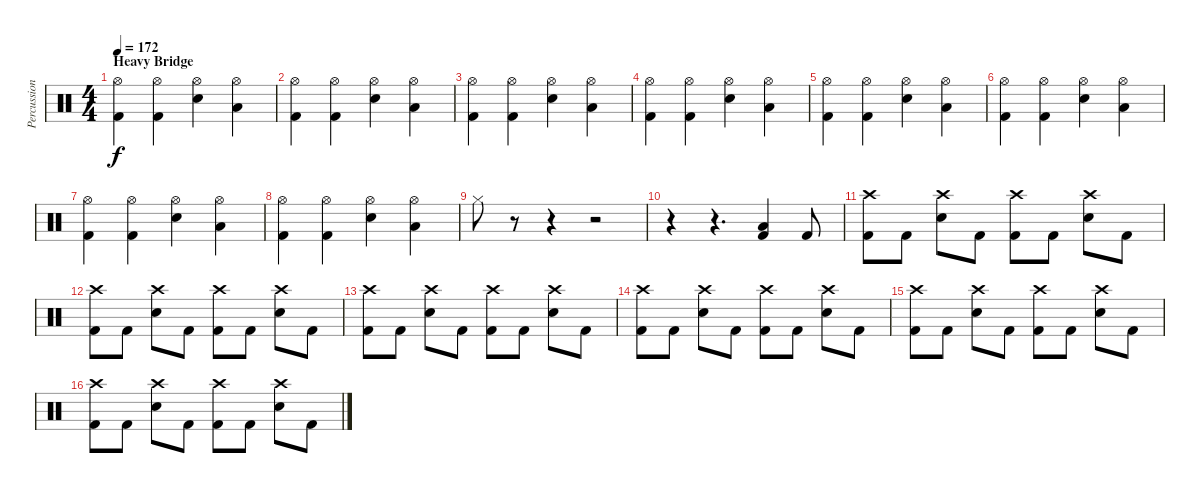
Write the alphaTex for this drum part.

\track ("Percussion" "Percussion") {instrument percussion}
\staff {score}
\articulation defaults
\ts (4 4)
\section ("" "Heavy Bridge")
\tempo 172
\clef neutral
\ks c
("Hi-Hat (open)" "Kick (hit) 2").4{dy f} ("Hi-Hat (open)" "Kick (hit) 2").4 ("Hi-Hat (open)" "Electric Snare (hit)").4 ("Hi-Hat (open)" "Low Tom (hit)").4 |
("Hi-Hat (open)" "Kick (hit) 2").4 ("Hi-Hat (open)" "Kick (hit) 2").4 ("Hi-Hat (open)" "Electric Snare (hit)").4 ("Hi-Hat (open)" "Low Tom (hit)").4 |
("Hi-Hat (open)" "Kick (hit) 2").4 ("Hi-Hat (open)" "Kick (hit) 2").4 ("Hi-Hat (open)" "Electric Snare (hit)").4 ("Hi-Hat (open)" "Low Tom (hit)").4 |
("Hi-Hat (open)" "Kick (hit) 2").4 ("Hi-Hat (open)" "Kick (hit) 2").4 ("Hi-Hat (open)" "Electric Snare (hit)").4 ("Hi-Hat (open)" "Low Tom (hit)").4 |
("Hi-Hat (open)" "Kick (hit) 2").4 ("Hi-Hat (open)" "Kick (hit) 2").4 ("Hi-Hat (open)" "Electric Snare (hit)").4 ("Hi-Hat (open)" "Low Tom (hit)").4 |
("Hi-Hat (open)" "Kick (hit) 2").4 ("Hi-Hat (open)" "Kick (hit) 2").4 ("Hi-Hat (open)" "Electric Snare (hit)").4 ("Hi-Hat (open)" "Low Tom (hit)").4 |
("Hi-Hat (open)" "Kick (hit) 2").4 ("Hi-Hat (open)" "Kick (hit) 2").4 ("Hi-Hat (open)" "Electric Snare (hit)").4 ("Hi-Hat (open)" "Low Tom (hit)").4 |
("Hi-Hat (open)" "Kick (hit) 2").4 ("Hi-Hat (open)" "Kick (hit) 2").4 ("Hi-Hat (open)" "Electric Snare (hit)").4 ("Hi-Hat (open)" "Low Tom (hit)").4 |
"Hi-Hat (closed)".8 r.8 r.4 r.2 |
r.4 r.4{d} ("Low Tom (hit)" "Kick (hit) 2").4 "Kick (hit) 2".8 |
("Crash high (hit)" "Kick (hit) 2").8 "Kick (hit) 2".8 ("Crash high (hit)" "Electric Snare (hit)").8 "Kick (hit) 2".8 ("Crash high (hit)" "Kick (hit) 2").8 "Kick (hit) 2".8 ("Crash high (hit)" "Electric Snare (hit)").8 "Kick (hit) 2".8 |
("Crash high (hit)" "Kick (hit) 2").8 "Kick (hit) 2".8 ("Crash high (hit)" "Electric Snare (hit)").8 "Kick (hit) 2".8 ("Crash high (hit)" "Kick (hit) 2").8 "Kick (hit) 2".8 ("Crash high (hit)" "Electric Snare (hit)").8 "Kick (hit) 2".8 |
("Crash high (hit)" "Kick (hit) 2").8 "Kick (hit) 2".8 ("Crash high (hit)" "Electric Snare (hit)").8 "Kick (hit) 2".8 ("Crash high (hit)" "Kick (hit) 2").8 "Kick (hit) 2".8 ("Crash high (hit)" "Electric Snare (hit)").8 "Kick (hit) 2".8 |
("Crash high (hit)" "Kick (hit) 2").8 "Kick (hit) 2".8 ("Crash high (hit)" "Electric Snare (hit)").8 "Kick (hit) 2".8 ("Crash high (hit)" "Kick (hit) 2").8 "Kick (hit) 2".8 ("Crash high (hit)" "Electric Snare (hit)").8 "Kick (hit) 2".8 |
("Crash high (hit)" "Kick (hit) 2").8 "Kick (hit) 2".8 ("Crash high (hit)" "Electric Snare (hit)").8 "Kick (hit) 2".8 ("Crash high (hit)" "Kick (hit) 2").8 "Kick (hit) 2".8 ("Crash high (hit)" "Electric Snare (hit)").8 "Kick (hit) 2".8 |
("Crash high (hit)" "Kick (hit) 2").8 "Kick (hit) 2".8 ("Crash high (hit)" "Electric Snare (hit)").8 "Kick (hit) 2".8 ("Crash high (hit)" "Kick (hit) 2").8 "Kick (hit) 2".8 ("Crash high (hit)" "Electric Snare (hit)").8 "Kick (hit) 2".8
